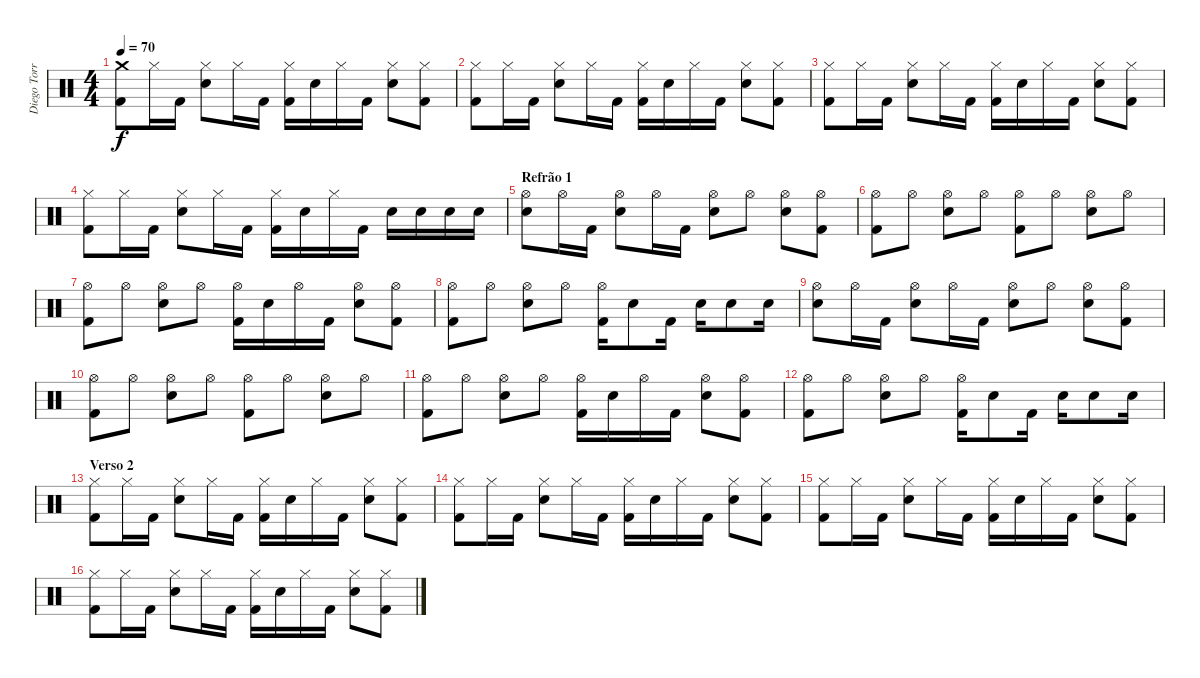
\track ("Diego Torres [Bateria]" "Diego Torr") {instrument percussion}
\staff {score}
\articulation defaults
\ts (4 4)
\tempo 70
\clef neutral
\ks c
("Crash medium (hit)" "Kick (hit) 2").8{dy f} "Hi-Hat (closed)".16 "Kick (hit) 2".16 ("Hi-Hat (closed)" "Electric Snare (hit)").8 "Hi-Hat (closed)".16 "Kick (hit) 2".16 ("Hi-Hat (closed)" "Kick (hit) 2").16 "Electric Snare (hit)".16 "Hi-Hat (closed)".16 "Kick (hit) 2".16 ("Hi-Hat (closed)" "Electric Snare (hit)").8 ("Hi-Hat (closed)" "Kick (hit) 2").8 |
("Hi-Hat (closed)" "Kick (hit) 2").8 "Hi-Hat (closed)".16 "Kick (hit) 2".16 ("Hi-Hat (closed)" "Electric Snare (hit)").8 "Hi-Hat (closed)".16 "Kick (hit) 2".16 ("Hi-Hat (closed)" "Kick (hit) 2").16 "Electric Snare (hit)".16 "Hi-Hat (closed)".16 "Kick (hit) 2".16 ("Hi-Hat (closed)" "Electric Snare (hit)").8 ("Hi-Hat (closed)" "Kick (hit) 2").8 |
("Hi-Hat (closed)" "Kick (hit) 2").8 "Hi-Hat (closed)".16 "Kick (hit) 2".16 ("Hi-Hat (closed)" "Electric Snare (hit)").8 "Hi-Hat (closed)".16 "Kick (hit) 2".16 ("Hi-Hat (closed)" "Kick (hit) 2").16 "Electric Snare (hit)".16 "Hi-Hat (closed)".16 "Kick (hit) 2".16 ("Hi-Hat (closed)" "Electric Snare (hit)").8 ("Hi-Hat (closed)" "Kick (hit) 2").8 |
("Hi-Hat (closed)" "Kick (hit) 2").8 "Hi-Hat (closed)".16 "Kick (hit) 2".16 ("Hi-Hat (closed)" "Electric Snare (hit)").8 "Hi-Hat (closed)".16 "Kick (hit) 2".16 ("Hi-Hat (closed)" "Kick (hit) 2").16 "Electric Snare (hit)".16 "Hi-Hat (closed)".16 "Kick (hit) 2".16 "Electric Snare (hit)".16 "Electric Snare (hit)".16 "Electric Snare (hit)".16 "Electric Snare (hit)".16 |
\section ("" "Refrão 1")
("Hi-Hat (open)" "Electric Snare (hit)").8 "Hi-Hat (open)".16 "Kick (hit) 2".16 ("Hi-Hat (open)" "Electric Snare (hit)").8 "Hi-Hat (open)".16 "Kick (hit) 2".16 ("Hi-Hat (open)" "Electric Snare (hit)").8 "Hi-Hat (open)".8 ("Hi-Hat (open)" "Electric Snare (hit)").8 ("Hi-Hat (open)" "Kick (hit) 2").8 |
("Hi-Hat (open)" "Kick (hit) 2").8 "Hi-Hat (open)".8 ("Hi-Hat (open)" "Electric Snare (hit)").8 "Hi-Hat (open)".8 ("Hi-Hat (open)" "Kick (hit) 2").8 "Hi-Hat (open)".8 ("Hi-Hat (open)" "Electric Snare (hit)").8 "Hi-Hat (open)".8 |
("Hi-Hat (open)" "Kick (hit) 2").8 "Hi-Hat (open)".8 ("Hi-Hat (open)" "Electric Snare (hit)").8 "Hi-Hat (open)".8 ("Hi-Hat (open)" "Kick (hit) 2").16 "Electric Snare (hit)".16 "Hi-Hat (open)".16 "Kick (hit) 2".16 ("Hi-Hat (open)" "Electric Snare (hit)").8 ("Hi-Hat (open)" "Kick (hit) 2").8 |
("Hi-Hat (open)" "Kick (hit) 2").8 "Hi-Hat (open)".8 ("Hi-Hat (open)" "Electric Snare (hit)").8 "Hi-Hat (open)".8 ("Hi-Hat (open)" "Kick (hit) 2").16 "Electric Snare (hit)".8 "Kick (hit) 2".16 "Electric Snare (hit)".16 "Electric Snare (hit)".8 "Electric Snare (hit)".16 |
("Hi-Hat (open)" "Electric Snare (hit)").8 "Hi-Hat (open)".16 "Kick (hit) 2".16 ("Hi-Hat (open)" "Electric Snare (hit)").8 "Hi-Hat (open)".16 "Kick (hit) 2".16 ("Hi-Hat (open)" "Electric Snare (hit)").8 "Hi-Hat (open)".8 ("Hi-Hat (open)" "Electric Snare (hit)").8 ("Hi-Hat (open)" "Kick (hit) 2").8 |
("Hi-Hat (open)" "Kick (hit) 2").8 "Hi-Hat (open)".8 ("Hi-Hat (open)" "Electric Snare (hit)").8 "Hi-Hat (open)".8 ("Hi-Hat (open)" "Kick (hit) 2").8 "Hi-Hat (open)".8 ("Hi-Hat (open)" "Electric Snare (hit)").8 "Hi-Hat (open)".8 |
("Hi-Hat (open)" "Kick (hit) 2").8 "Hi-Hat (open)".8 ("Hi-Hat (open)" "Electric Snare (hit)").8 "Hi-Hat (open)".8 ("Hi-Hat (open)" "Kick (hit) 2").16 "Electric Snare (hit)".16 "Hi-Hat (open)".16 "Kick (hit) 2".16 ("Hi-Hat (open)" "Electric Snare (hit)").8 ("Hi-Hat (open)" "Kick (hit) 2").8 |
("Hi-Hat (open)" "Kick (hit) 2").8 "Hi-Hat (open)".8 ("Hi-Hat (open)" "Electric Snare (hit)").8 "Hi-Hat (open)".8 ("Hi-Hat (open)" "Kick (hit) 2").16 "Electric Snare (hit)".8 "Kick (hit) 2".16 "Electric Snare (hit)".16 "Electric Snare (hit)".8 "Electric Snare (hit)".16 |
\section ("" "Verso 2")
("Hi-Hat (closed)" "Kick (hit) 2").8 "Hi-Hat (closed)".16 "Kick (hit) 2".16 ("Hi-Hat (closed)" "Electric Snare (hit)").8 "Hi-Hat (closed)".16 "Kick (hit) 2".16 ("Hi-Hat (closed)" "Kick (hit) 2").16 "Electric Snare (hit)".16 "Hi-Hat (closed)".16 "Kick (hit) 2".16 ("Hi-Hat (closed)" "Electric Snare (hit)").8 ("Hi-Hat (closed)" "Kick (hit) 2").8 |
("Hi-Hat (closed)" "Kick (hit) 2").8 "Hi-Hat (closed)".16 "Kick (hit) 2".16 ("Hi-Hat (closed)" "Electric Snare (hit)").8 "Hi-Hat (closed)".16 "Kick (hit) 2".16 ("Hi-Hat (closed)" "Kick (hit) 2").16 "Electric Snare (hit)".16 "Hi-Hat (closed)".16 "Kick (hit) 2".16 ("Hi-Hat (closed)" "Electric Snare (hit)").8 ("Hi-Hat (closed)" "Kick (hit) 2").8 |
("Hi-Hat (closed)" "Kick (hit) 2").8 "Hi-Hat (closed)".16 "Kick (hit) 2".16 ("Hi-Hat (closed)" "Electric Snare (hit)").8 "Hi-Hat (closed)".16 "Kick (hit) 2".16 ("Hi-Hat (closed)" "Kick (hit) 2").16 "Electric Snare (hit)".16 "Hi-Hat (closed)".16 "Kick (hit) 2".16 ("Hi-Hat (closed)" "Electric Snare (hit)").8 ("Hi-Hat (closed)" "Kick (hit) 2").8 |
("Hi-Hat (closed)" "Kick (hit) 2").8 "Hi-Hat (closed)".16 "Kick (hit) 2".16 ("Hi-Hat (closed)" "Electric Snare (hit)").8 "Hi-Hat (closed)".16 "Kick (hit) 2".16 ("Hi-Hat (closed)" "Kick (hit) 2").16 "Electric Snare (hit)".16 "Hi-Hat (closed)".16 "Kick (hit) 2".16 ("Hi-Hat (closed)" "Electric Snare (hit)").8 ("Hi-Hat (closed)" "Kick (hit) 2").8
